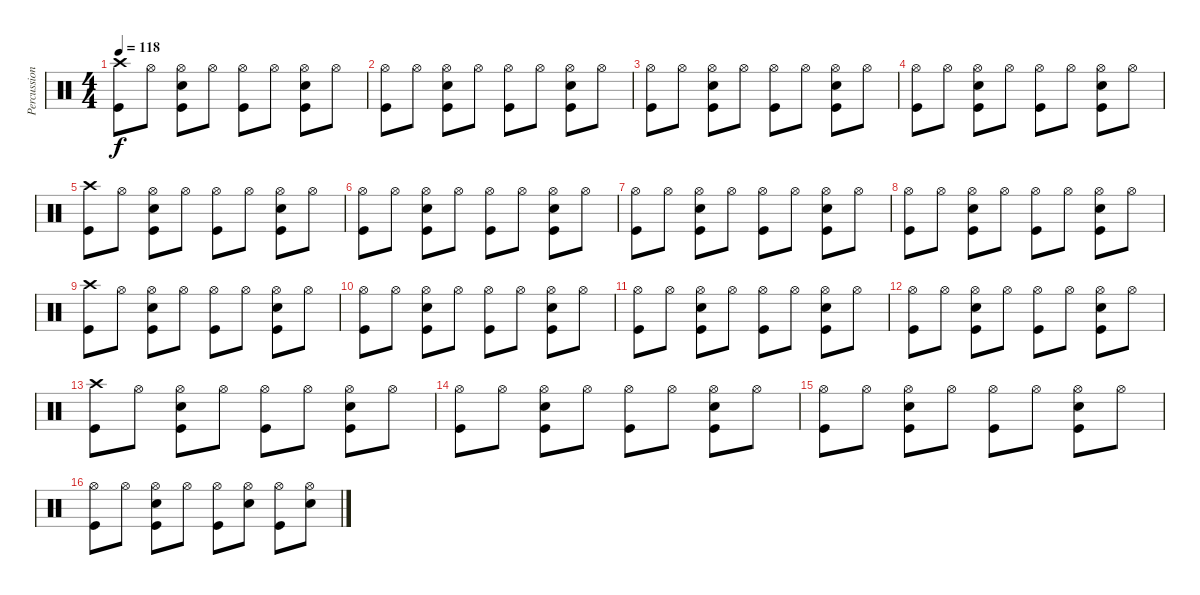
\track ("Percussion" "Percussion") {instrument percussion}
\staff {score}
\articulation defaults
\ts (4 4)
\tempo 118
\clef neutral
\ks c
("Crash high (hit)" "Kick (hit)").8{dy f} "Hi-Hat (open)".8 ("Hi-Hat (open)" "Electric Snare (hit)" "Kick (hit)").8 "Hi-Hat (open)".8 ("Hi-Hat (open)" "Kick (hit)").8 "Hi-Hat (open)".8 ("Hi-Hat (open)" "Electric Snare (hit)" "Kick (hit)").8 "Hi-Hat (open)".8 |
("Hi-Hat (open)" "Kick (hit)").8 "Hi-Hat (open)".8 ("Hi-Hat (open)" "Electric Snare (hit)" "Kick (hit)").8 "Hi-Hat (open)".8 ("Hi-Hat (open)" "Kick (hit)").8 "Hi-Hat (open)".8 ("Hi-Hat (open)" "Electric Snare (hit)" "Kick (hit)").8 "Hi-Hat (open)".8 |
("Hi-Hat (open)" "Kick (hit)").8 "Hi-Hat (open)".8 ("Hi-Hat (open)" "Electric Snare (hit)" "Kick (hit)").8 "Hi-Hat (open)".8 ("Hi-Hat (open)" "Kick (hit)").8 "Hi-Hat (open)".8 ("Hi-Hat (open)" "Electric Snare (hit)" "Kick (hit)").8 "Hi-Hat (open)".8 |
("Hi-Hat (open)" "Kick (hit)").8 "Hi-Hat (open)".8 ("Hi-Hat (open)" "Electric Snare (hit)" "Kick (hit)").8 "Hi-Hat (open)".8 ("Hi-Hat (open)" "Kick (hit)").8 "Hi-Hat (open)".8 ("Hi-Hat (open)" "Electric Snare (hit)" "Kick (hit)").8 "Hi-Hat (open)".8 |
("Crash high (hit)" "Kick (hit)").8 "Hi-Hat (open)".8 ("Hi-Hat (open)" "Electric Snare (hit)" "Kick (hit)").8 "Hi-Hat (open)".8 ("Hi-Hat (open)" "Kick (hit)").8 "Hi-Hat (open)".8 ("Hi-Hat (open)" "Electric Snare (hit)" "Kick (hit)").8 "Hi-Hat (open)".8 |
("Hi-Hat (open)" "Kick (hit)").8 "Hi-Hat (open)".8 ("Hi-Hat (open)" "Electric Snare (hit)" "Kick (hit)").8 "Hi-Hat (open)".8 ("Hi-Hat (open)" "Kick (hit)").8 "Hi-Hat (open)".8 ("Hi-Hat (open)" "Electric Snare (hit)" "Kick (hit)").8 "Hi-Hat (open)".8 |
("Hi-Hat (open)" "Kick (hit)").8 "Hi-Hat (open)".8 ("Hi-Hat (open)" "Electric Snare (hit)" "Kick (hit)").8 "Hi-Hat (open)".8 ("Hi-Hat (open)" "Kick (hit)").8 "Hi-Hat (open)".8 ("Hi-Hat (open)" "Electric Snare (hit)" "Kick (hit)").8 "Hi-Hat (open)".8 |
("Hi-Hat (open)" "Kick (hit)").8 "Hi-Hat (open)".8 ("Hi-Hat (open)" "Electric Snare (hit)" "Kick (hit)").8 "Hi-Hat (open)".8 ("Hi-Hat (open)" "Kick (hit)").8 "Hi-Hat (open)".8 ("Hi-Hat (open)" "Electric Snare (hit)" "Kick (hit)").8 "Hi-Hat (open)".8 |
("Crash high (hit)" "Kick (hit)").8 "Hi-Hat (open)".8 ("Hi-Hat (open)" "Electric Snare (hit)" "Kick (hit)").8 "Hi-Hat (open)".8 ("Hi-Hat (open)" "Kick (hit)").8 "Hi-Hat (open)".8 ("Hi-Hat (open)" "Electric Snare (hit)" "Kick (hit)").8 "Hi-Hat (open)".8 |
("Hi-Hat (open)" "Kick (hit)").8 "Hi-Hat (open)".8 ("Hi-Hat (open)" "Electric Snare (hit)" "Kick (hit)").8 "Hi-Hat (open)".8 ("Hi-Hat (open)" "Kick (hit)").8 "Hi-Hat (open)".8 ("Hi-Hat (open)" "Electric Snare (hit)" "Kick (hit)").8 "Hi-Hat (open)".8 |
("Hi-Hat (open)" "Kick (hit)").8 "Hi-Hat (open)".8 ("Hi-Hat (open)" "Electric Snare (hit)" "Kick (hit)").8 "Hi-Hat (open)".8 ("Hi-Hat (open)" "Kick (hit)").8 "Hi-Hat (open)".8 ("Hi-Hat (open)" "Electric Snare (hit)" "Kick (hit)").8 "Hi-Hat (open)".8 |
("Hi-Hat (open)" "Kick (hit)").8 "Hi-Hat (open)".8 ("Hi-Hat (open)" "Electric Snare (hit)" "Kick (hit)").8 "Hi-Hat (open)".8 ("Hi-Hat (open)" "Kick (hit)").8 "Hi-Hat (open)".8 ("Hi-Hat (open)" "Electric Snare (hit)" "Kick (hit)").8 "Hi-Hat (open)".8 |
("Crash high (hit)" "Kick (hit)").8 "Hi-Hat (open)".8 ("Hi-Hat (open)" "Electric Snare (hit)" "Kick (hit)").8 "Hi-Hat (open)".8 ("Hi-Hat (open)" "Kick (hit)").8 "Hi-Hat (open)".8 ("Hi-Hat (open)" "Electric Snare (hit)" "Kick (hit)").8 "Hi-Hat (open)".8 |
("Hi-Hat (open)" "Kick (hit)").8 "Hi-Hat (open)".8 ("Hi-Hat (open)" "Electric Snare (hit)" "Kick (hit)").8 "Hi-Hat (open)".8 ("Hi-Hat (open)" "Kick (hit)").8 "Hi-Hat (open)".8 ("Hi-Hat (open)" "Electric Snare (hit)" "Kick (hit)").8 "Hi-Hat (open)".8 |
("Hi-Hat (open)" "Kick (hit)").8 "Hi-Hat (open)".8 ("Hi-Hat (open)" "Electric Snare (hit)" "Kick (hit)").8 "Hi-Hat (open)".8 ("Hi-Hat (open)" "Kick (hit)").8 "Hi-Hat (open)".8 ("Hi-Hat (open)" "Electric Snare (hit)" "Kick (hit)").8 "Hi-Hat (open)".8 |
("Hi-Hat (open)" "Kick (hit)").8 "Hi-Hat (open)".8 ("Hi-Hat (open)" "Electric Snare (hit)" "Kick (hit)").8 "Hi-Hat (open)".8 ("Hi-Hat (open)" "Kick (hit)").8 ("Hi-Hat (open)" "Electric Snare (hit)").8 ("Hi-Hat (open)" "Kick (hit)").8 ("Hi-Hat (open)" "Electric Snare (hit)").8
